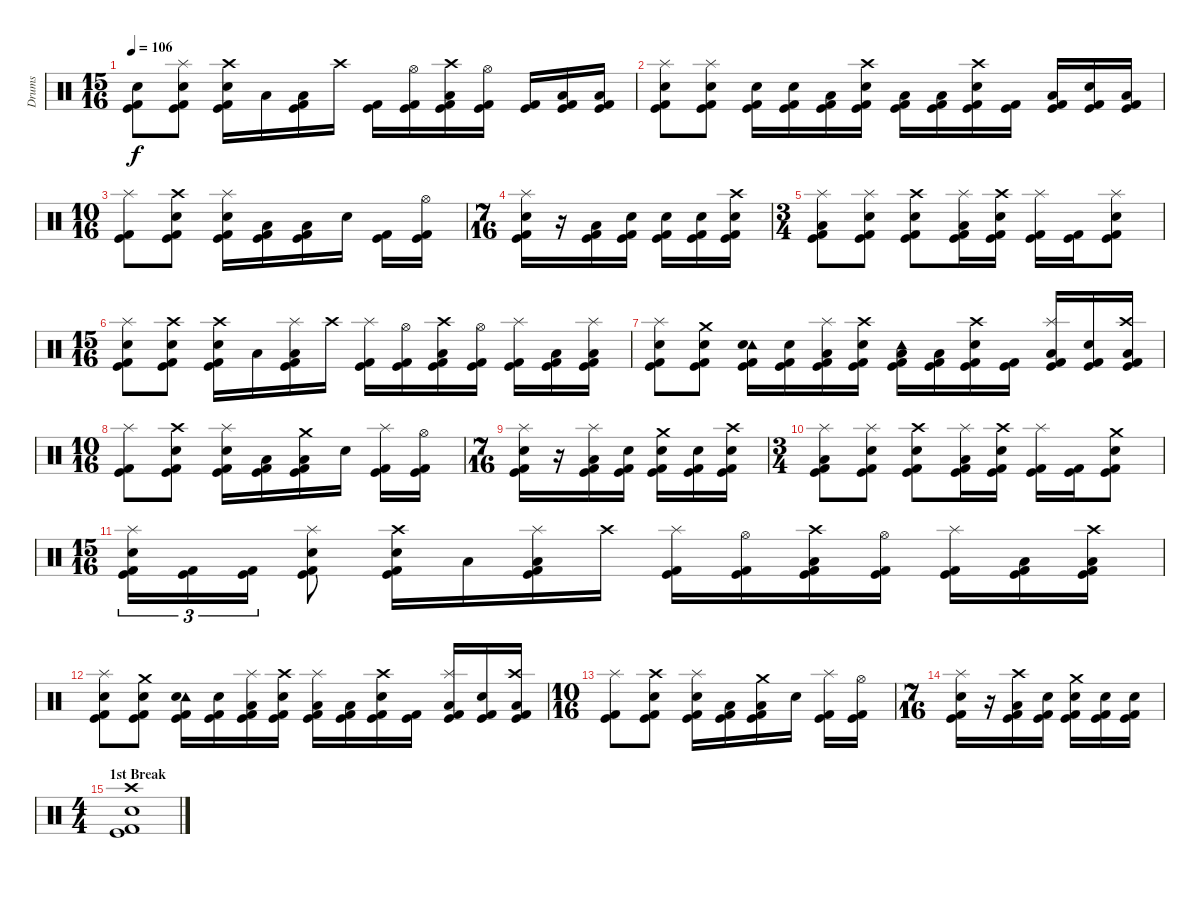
\track ("Drums" "Drums") {instrument percussion}
\staff {score}
\articulation defaults
\ts (15 16)
\tempo 106
\clef neutral
\ks c
("Electric Snare (hit)" "Kick (hit)" "Kick (hit) 2").8{dy f} ("Splash (hit)" "Electric Snare (hit)" "Kick (hit)" "Kick (hit) 2").8 ("Crash high (hit)" "Electric Snare (hit)" "Kick (hit)" "Kick (hit) 2").16 "Low Tom (hit)".16 ("Low Tom (hit)" "Kick (hit)" "Kick (hit) 2").16 "Crash high (hit)".16 ("Kick (hit)" "Kick (hit) 2").16 ("Hi-Hat (open)" "Kick (hit)" "Kick (hit) 2").16 ("Crash high (hit)" "Low Tom (hit)" "Kick (hit)" "Kick (hit) 2").16 ("Hi-Hat (open)" "Kick (hit)" "Kick (hit) 2").16 ("Kick (hit)" "Kick (hit) 2").16 ("Low Tom (hit)" "Kick (hit)" "Kick (hit) 2").16 ("Low Tom (hit)" "Kick (hit)" "Kick (hit) 2").16 |
("Splash (hit)" "Electric Snare (hit)" "Kick (hit)" "Kick (hit) 2").8 ("Splash (hit)" "Electric Snare (hit)" "Kick (hit)" "Kick (hit) 2").8 ("Electric Snare (hit)" "Kick (hit)" "Kick (hit) 2").16 ("Electric Snare (hit)" "Kick (hit)" "Kick (hit) 2").16 ("Low Tom (hit)" "Kick (hit)" "Kick (hit) 2").16 ("Crash high (hit)" "Electric Snare (hit)" "Kick (hit)" "Kick (hit) 2").16 ("Low Tom (hit)" "Kick (hit)" "Kick (hit) 2").16 ("Low Tom (hit)" "Kick (hit)" "Kick (hit) 2").16 ("Crash high (hit)" "Electric Snare (hit)" "Kick (hit)" "Kick (hit) 2").16 ("Kick (hit)" "Kick (hit) 2").16 ("Low Tom (hit)" "Kick (hit)" "Kick (hit) 2").16 ("Electric Snare (hit)" "Kick (hit)" "Kick (hit) 2").16 ("Low Tom (hit)" "Kick (hit)" "Kick (hit) 2").16 |
\ts (10 16)
("Splash (hit)" "Kick (hit)" "Kick (hit) 2").8 ("Crash high (hit)" "Electric Snare (hit)" "Kick (hit)" "Kick (hit) 2").8 ("Splash (hit)" "Electric Snare (hit)" "Kick (hit)" "Kick (hit) 2").16 ("Low Tom (hit)" "Kick (hit)" "Kick (hit) 2").16 ("Low Tom (hit)" "Kick (hit)" "Kick (hit) 2").16 "Electric Snare (hit)".16 ("Kick (hit)" "Kick (hit) 2").16 ("Hi-Hat (open)" "Kick (hit)" "Kick (hit) 2").16 |
\ts (7 16)
("Splash (hit)" "Electric Snare (hit)" "Kick (hit)" "Kick (hit) 2").16 r.16 ("Low Tom (hit)" "Kick (hit)" "Kick (hit) 2").16 ("Electric Snare (hit)" "Kick (hit)" "Kick (hit) 2").16 ("Electric Snare (hit)" "Kick (hit)" "Kick (hit) 2").16 ("Electric Snare (hit)" "Kick (hit)" "Kick (hit) 2").16 ("Crash high (hit)" "Electric Snare (hit)" "Kick (hit)" "Kick (hit) 2").16 |
\ts (3 4)
("Splash (hit)" "Low Tom (hit)" "Kick (hit)" "Kick (hit) 2").8 ("Splash (hit)" "Electric Snare (hit)" "Kick (hit)" "Kick (hit) 2").8 ("Crash high (hit)" "Electric Snare (hit)" "Kick (hit)" "Kick (hit) 2").8 ("Splash (hit)" "Low Tom (hit)" "Kick (hit)" "Kick (hit) 2").16 ("Crash high (hit)" "Electric Snare (hit)" "Kick (hit)" "Kick (hit) 2").16 ("Splash (hit)" "Kick (hit)" "Kick (hit) 2").16 ("Kick (hit)" "Kick (hit) 2").16 ("Splash (hit)" "Electric Snare (hit)" "Kick (hit)" "Kick (hit) 2").8 |
\ts (15 16)
("Splash (hit)" "Electric Snare (hit)" "Kick (hit)" "Kick (hit) 2").8 ("Crash high (hit)" "Electric Snare (hit)" "Kick (hit)" "Kick (hit) 2").8 ("Crash high (hit)" "Electric Snare (hit)" "Kick (hit)" "Kick (hit) 2").16 "Low Tom (hit)".16 ("Splash (hit)" "Low Tom (hit)" "Kick (hit)" "Kick (hit) 2").16 "Crash high (hit)".16 ("Splash (hit)" "Kick (hit)" "Kick (hit) 2").16 ("Hi-Hat (open)" "Kick (hit)" "Kick (hit) 2").16 ("Crash high (hit)" "Low Tom (hit)" "Kick (hit)" "Kick (hit) 2").16 ("Hi-Hat (open)" "Kick (hit)" "Kick (hit) 2").16 ("Splash (hit)" "Kick (hit)" "Kick (hit) 2").16 ("Low Tom (hit)" "Kick (hit)" "Kick (hit) 2").16 ("Splash (hit)" "Low Tom (hit)" "Kick (hit)" "Kick (hit) 2").16 |
("Splash (hit)" "Electric Snare (hit)" "Kick (hit)" "Kick (hit) 2").8 ("Crash medium (hit)" "Electric Snare (hit)" "Kick (hit)" "Kick (hit) 2").8 ("Tambourine (hit)" "Electric Snare (hit)" "Kick (hit)" "Kick (hit) 2").16 ("Electric Snare (hit)" "Kick (hit)" "Kick (hit) 2").16 ("Splash (hit)" "Low Tom (hit)" "Kick (hit)" "Kick (hit) 2").16 ("Crash high (hit)" "Electric Snare (hit)" "Kick (hit)" "Kick (hit) 2").16 ("Tambourine (hit)" "Low Tom (hit)" "Kick (hit)" "Kick (hit) 2").16 ("Low Tom (hit)" "Kick (hit)" "Kick (hit) 2").16 ("Crash high (hit)" "Electric Snare (hit)" "Kick (hit)" "Kick (hit) 2").16 ("Kick (hit)" "Kick (hit) 2").16 ("Splash (hit)" "Low Tom (hit)" "Kick (hit)" "Kick (hit) 2").16 ("Electric Snare (hit)" "Kick (hit)" "Kick (hit) 2").16 ("Crash high (hit)" "Low Tom (hit)" "Kick (hit)" "Kick (hit) 2").16 |
\ts (10 16)
("Splash (hit)" "Kick (hit)" "Kick (hit) 2").8 ("Crash high (hit)" "Electric Snare (hit)" "Kick (hit)" "Kick (hit) 2").8 ("Splash (hit)" "Electric Snare (hit)" "Kick (hit)" "Kick (hit) 2").16 ("Low Tom (hit)" "Kick (hit)" "Kick (hit) 2").16 ("Crash medium (hit)" "Low Tom (hit)" "Kick (hit)" "Kick (hit) 2").16 "Electric Snare (hit)".16 ("Splash (hit)" "Kick (hit)" "Kick (hit) 2").16 ("Hi-Hat (open)" "Kick (hit)" "Kick (hit) 2").16 |
\ts (7 16)
("Splash (hit)" "Electric Snare (hit)" "Kick (hit)" "Kick (hit) 2").16 r.16 ("Splash (hit)" "Low Tom (hit)" "Kick (hit)" "Kick (hit) 2").16 ("Electric Snare (hit)" "Kick (hit)" "Kick (hit) 2").16 ("Crash medium (hit)" "Electric Snare (hit)" "Kick (hit)" "Kick (hit) 2").16 ("Electric Snare (hit)" "Kick (hit)" "Kick (hit) 2").16 ("Crash high (hit)" "Electric Snare (hit)" "Kick (hit)" "Kick (hit) 2").16 |
\ts (3 4)
("Splash (hit)" "Low Tom (hit)" "Kick (hit)" "Kick (hit) 2").8 ("Splash (hit)" "Electric Snare (hit)" "Kick (hit)" "Kick (hit) 2").8 ("Crash high (hit)" "Electric Snare (hit)" "Kick (hit)" "Kick (hit) 2").8 ("Splash (hit)" "Low Tom (hit)" "Kick (hit)" "Kick (hit) 2").16 ("Crash high (hit)" "Electric Snare (hit)" "Kick (hit)" "Kick (hit) 2").16 ("Splash (hit)" "Kick (hit)" "Kick (hit) 2").16 ("Kick (hit)" "Kick (hit) 2").16 ("Crash medium (hit)" "Electric Snare (hit)" "Kick (hit)" "Kick (hit) 2").8 |
\ts (15 16)
("Splash (hit)" "Electric Snare (hit)" "Kick (hit)" "Kick (hit) 2").16{tu (3 2)} ("Kick (hit)" "Kick (hit) 2").16{tu (3 2)} ("Kick (hit)" "Kick (hit) 2").16{tu (3 2)} ("Splash (hit)" "Electric Snare (hit)" "Kick (hit)" "Kick (hit) 2").8 ("Crash high (hit)" "Electric Snare (hit)" "Kick (hit)" "Kick (hit) 2").16 "Low Tom (hit)".16 ("Splash (hit)" "Low Tom (hit)" "Kick (hit)" "Kick (hit) 2").16 "Crash high (hit)".16 ("Splash (hit)" "Kick (hit)" "Kick (hit) 2").16 ("Hi-Hat (open)" "Kick (hit)" "Kick (hit) 2").16 ("Crash high (hit)" "Low Tom (hit)" "Kick (hit)" "Kick (hit) 2").16 ("Hi-Hat (open)" "Kick (hit)" "Kick (hit) 2").16 ("Splash (hit)" "Kick (hit)" "Kick (hit) 2").16 ("Low Tom (hit)" "Kick (hit)" "Kick (hit) 2").16 ("Crash high (hit)" "Low Tom (hit)" "Kick (hit)" "Kick (hit) 2").16 |
("Splash (hit)" "Electric Snare (hit)" "Kick (hit)" "Kick (hit) 2").8 ("Crash medium (hit)" "Electric Snare (hit)" "Kick (hit)" "Kick (hit) 2").8 ("Tambourine (hit)" "Electric Snare (hit)" "Kick (hit)" "Kick (hit) 2").16 ("Electric Snare (hit)" "Kick (hit)" "Kick (hit) 2").16 ("Splash (hit)" "Low Tom (hit)" "Kick (hit)" "Kick (hit) 2").16 ("Crash high (hit)" "Electric Snare (hit)" "Kick (hit)" "Kick (hit) 2").16 ("Splash (hit)" "Low Tom (hit)" "Kick (hit)" "Kick (hit) 2").16 ("Low Tom (hit)" "Kick (hit)" "Kick (hit) 2").16 ("Crash high (hit)" "Electric Snare (hit)" "Kick (hit)" "Kick (hit) 2").16 ("Kick (hit)" "Kick (hit) 2").16 ("Splash (hit)" "Low Tom (hit)" "Kick (hit)" "Kick (hit) 2").16 ("Electric Snare (hit)" "Kick (hit)" "Kick (hit) 2").16 ("Crash high (hit)" "Low Tom (hit)" "Kick (hit)" "Kick (hit) 2").16 |
\ts (10 16)
("Splash (hit)" "Kick (hit)" "Kick (hit) 2").8 ("Crash high (hit)" "Electric Snare (hit)" "Kick (hit)" "Kick (hit) 2").8 ("Splash (hit)" "Electric Snare (hit)" "Kick (hit)" "Kick (hit) 2").16 ("Low Tom (hit)" "Kick (hit)" "Kick (hit) 2").16 ("Crash medium (hit)" "Low Tom (hit)" "Kick (hit)" "Kick (hit) 2").16 "Electric Snare (hit)".16 ("Splash (hit)" "Kick (hit)" "Kick (hit) 2").16 ("Hi-Hat (open)" "Kick (hit)" "Kick (hit) 2").16 |
\ts (7 16)
("Splash (hit)" "Electric Snare (hit)" "Kick (hit)" "Kick (hit) 2").16 r.16 ("Crash high (hit)" "Low Tom (hit)" "Kick (hit)" "Kick (hit) 2").16 ("Electric Snare (hit)" "Kick (hit)" "Kick (hit) 2").16 ("Crash medium (hit)" "Electric Snare (hit)" "Kick (hit)" "Kick (hit) 2").16 ("Electric Snare (hit)" "Kick (hit)" "Kick (hit) 2").16 ("Electric Snare (hit)" "Kick (hit)" "Kick (hit) 2").16 |
\ts (4 4)
\section ("" "1st Break")
("Crash high (hit)" "Electric Snare (hit)" "Kick (hit)" "Kick (hit) 2").1{volume 11}
